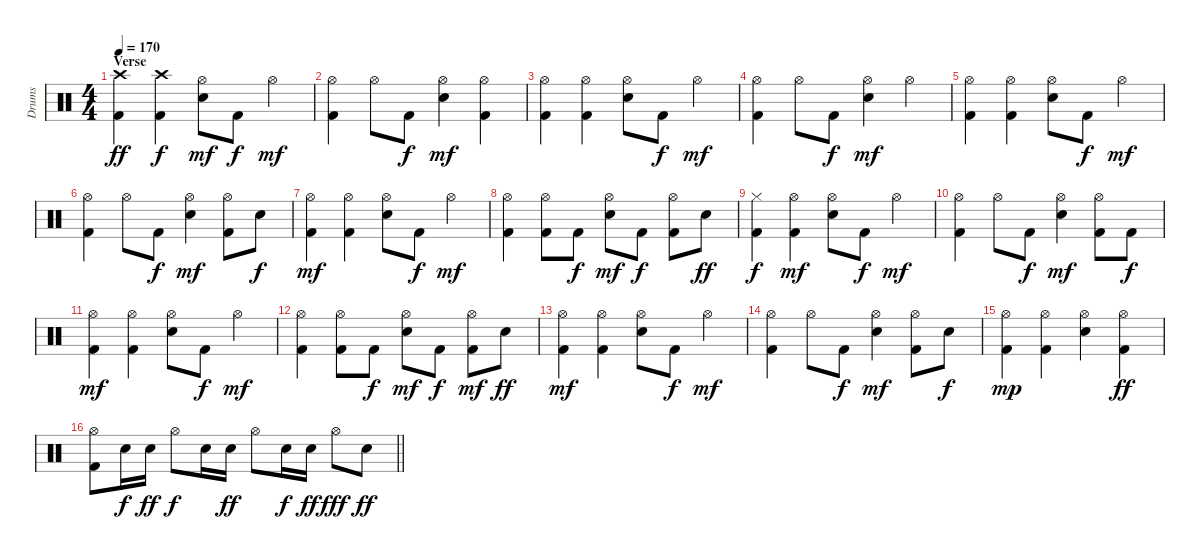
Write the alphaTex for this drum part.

\track ("Drums" "Drums") {instrument percussion}
\staff {score}
\articulation defaults
\ts (4 4)
\section ("" "Verse")
\tempo 170
\clef neutral
\ks c
("Crash high (hit)" "Kick (hit) 2").4{dy ff} ("Crash high (hit)" "Kick (hit) 2").4{dy f} ("Hi-Hat (open)" "Snare (hit) 2").8{dy mf} "Kick (hit) 2".8{dy f} "Hi-Hat (open)".4{dy mf} |
("Hi-Hat (open)" "Kick (hit) 2").4 "Hi-Hat (open)".8 "Kick (hit) 2".8{dy f} ("Hi-Hat (open)" "Snare (hit) 2").4{dy mf} ("Hi-Hat (open)" "Kick (hit) 2").4 |
("Hi-Hat (open)" "Kick (hit) 2").4 ("Hi-Hat (open)" "Kick (hit) 2").4 ("Hi-Hat (open)" "Snare (hit) 2").8 "Kick (hit) 2".8{dy f} "Hi-Hat (open)".4{dy mf} |
("Hi-Hat (open)" "Kick (hit) 2").4 "Hi-Hat (open)".8 "Kick (hit) 2".8{dy f} ("Hi-Hat (open)" "Snare (hit) 2").4{dy mf} "Hi-Hat (open)".4 |
("Hi-Hat (open)" "Kick (hit) 2").4 ("Hi-Hat (open)" "Kick (hit) 2").4 ("Hi-Hat (open)" "Snare (hit) 2").8 "Kick (hit) 2".8{dy f} "Hi-Hat (open)".4{dy mf} |
("Hi-Hat (open)" "Kick (hit) 2").4 "Hi-Hat (open)".8 "Kick (hit) 2".8{dy f} ("Hi-Hat (open)" "Snare (hit) 2").4{dy mf} ("Hi-Hat (open)" "Kick (hit) 2").8 "Snare (hit) 2".8{dy f} |
("Hi-Hat (open)" "Kick (hit) 2").4{dy mf} ("Hi-Hat (open)" "Kick (hit) 2").4 ("Hi-Hat (open)" "Snare (hit) 2").8 "Kick (hit) 2".8{dy f} "Hi-Hat (open)".4{dy mf} |
("Hi-Hat (open)" "Kick (hit) 2").4 ("Hi-Hat (open)" "Kick (hit) 2").8 "Kick (hit) 2".8{dy f} ("Hi-Hat (open)" "Snare (hit) 2").8{dy mf} "Kick (hit) 2".8{dy f} ("Hi-Hat (open)" "Kick (hit) 2").8 "Snare (hit) 2".8{dy ff} |
("Hi-Hat (closed)" "Kick (hit) 2").4{dy f} ("Hi-Hat (open)" "Kick (hit) 2").4{dy mf} ("Hi-Hat (open)" "Snare (hit) 2").8 "Kick (hit) 2".8{dy f} "Hi-Hat (open)".4{dy mf} |
("Hi-Hat (open)" "Kick (hit) 2").4 "Hi-Hat (open)".8 "Kick (hit) 2".8{dy f} ("Hi-Hat (open)" "Snare (hit) 2").4{dy mf} ("Hi-Hat (open)" "Kick (hit) 2").8 "Kick (hit) 2".8{dy f} |
("Hi-Hat (open)" "Kick (hit) 2").4{dy mf} ("Hi-Hat (open)" "Kick (hit) 2").4 ("Hi-Hat (open)" "Snare (hit) 2").8 "Kick (hit) 2".8{dy f} "Hi-Hat (open)".4{dy mf} |
("Hi-Hat (open)" "Kick (hit) 2").4 ("Hi-Hat (open)" "Kick (hit) 2").8 "Kick (hit) 2".8{dy f} ("Hi-Hat (open)" "Snare (hit) 2").8{dy mf} "Kick (hit) 2".8{dy f} ("Hi-Hat (open)" "Kick (hit) 2").8{dy mf} "Snare (hit) 2".8{dy ff} |
("Hi-Hat (open)" "Kick (hit) 2").4{dy mf} ("Hi-Hat (open)" "Kick (hit) 2").4 ("Hi-Hat (open)" "Snare (hit) 2").8 "Kick (hit) 2".8{dy f} "Hi-Hat (open)".4{dy mf} |
("Hi-Hat (open)" "Kick (hit) 2").4 "Hi-Hat (open)".8 "Kick (hit) 2".8{dy f} ("Hi-Hat (open)" "Snare (hit) 2").4{dy mf} ("Hi-Hat (open)" "Kick (hit) 2").8 "Snare (hit) 2".8{dy f} |
("Hi-Hat (open)" "Kick (hit) 2").4{dy mp} ("Hi-Hat (open)" "Kick (hit) 2").4 ("Hi-Hat (open)" "Snare (hit) 2").4 ("Hi-Hat (open)" "Kick (hit) 2").4{dy ff} |
\barLineRight lightlight
("Hi-Hat (open)" "Kick (hit) 2").8 "Snare (hit) 2".16{dy f} "Snare (hit) 2".16{dy ff} "Hi-Hat (open)".8{dy f} "Snare (hit) 2".16 "Snare (hit) 2".16{dy ff} "Hi-Hat (open)".8 "Snare (hit) 2".16{dy f} "Snare (hit) 2".16{dy ff} "Hi-Hat (open)".8{dy fff} "Snare (hit) 2".8{dy ff}
